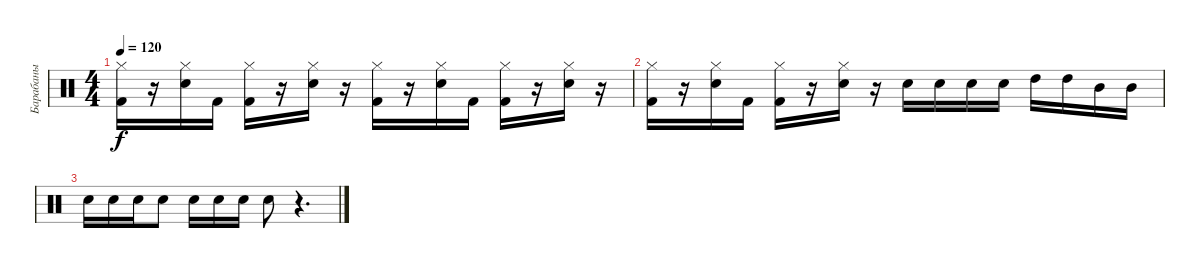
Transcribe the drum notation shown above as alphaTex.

\track ("Барабаны" "Барабаны") {instrument percussion}
\staff {score}
\articulation defaults
\ts (4 4)
\tempo 120
\clef neutral
\ks c
("Hi-Hat (closed)" "Kick (hit) 2").16{dy f} r.16 ("Hi-Hat (closed)" "Electric Snare (hit)").16 "Kick (hit) 2".16 ("Hi-Hat (closed)" "Kick (hit) 2").16 r.16 ("Hi-Hat (closed)" "Electric Snare (hit)").16 r.16 ("Hi-Hat (closed)" "Kick (hit) 2").16 r.16 ("Hi-Hat (closed)" "Electric Snare (hit)").16 "Kick (hit) 2".16 ("Hi-Hat (closed)" "Kick (hit) 2").16 r.16 ("Hi-Hat (closed)" "Electric Snare (hit)").16 r.16 |
("Hi-Hat (closed)" "Kick (hit) 2").16 r.16 ("Hi-Hat (closed)" "Electric Snare (hit)").16 "Kick (hit) 2".16 ("Hi-Hat (closed)" "Kick (hit) 2").16 r.16 ("Hi-Hat (closed)" "Electric Snare (hit)").16 r.16 "Electric Snare (hit)".16 "Electric Snare (hit)".16 "Electric Snare (hit)".16 "Electric Snare (hit)".16 "High Tom (hit)".16 "High Tom (hit)".16 "Mid Tom (hit)".16 "Mid Tom (hit)".16 |
"Electric Snare (hit)".16 "Electric Snare (hit)".16 "Electric Snare (hit)".16 "Electric Snare (hit)".8 "Electric Snare (hit)".16 "Electric Snare (hit)".16 "Electric Snare (hit)".16 "Electric Snare (hit)".8 r.4{d}
